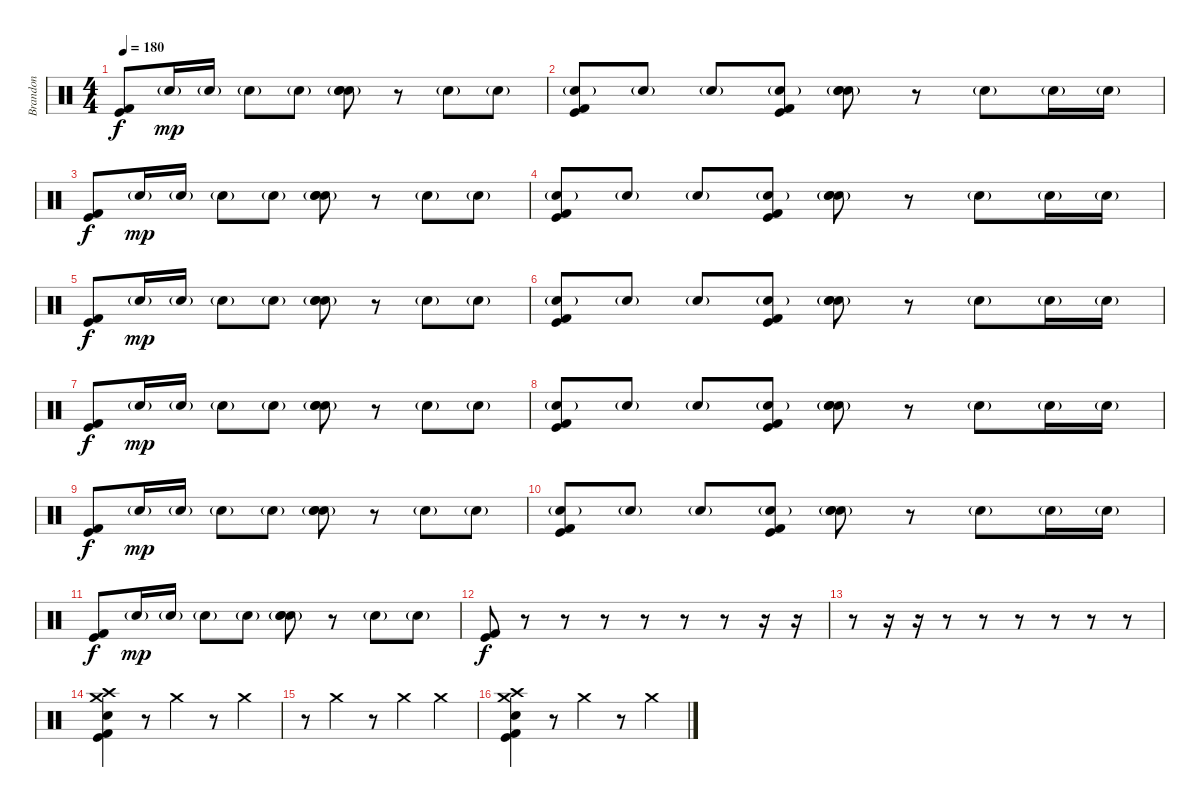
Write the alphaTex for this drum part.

\track ("Brandon" "Brandon") {instrument percussion}
\staff {score}
\articulation defaults
\ts (4 4)
\tempo 180
\clef neutral
\ks c
("Kick (hit)" "Kick (hit) 2").8{dy f} "Snare (hit) 2"{g}.16{dy mp} "Snare (hit) 2"{g}.16 "Snare (hit) 2"{g}.8 "Snare (hit) 2"{g}.8 ("Electric Snare (hit)" "Snare (hit) 2" "Snare (hit) 2"{g}).8 r.8 "Snare (hit) 2"{g}.8 "Snare (hit) 2"{g}.8 |
("Snare (hit) 2"{g} "Kick (hit)" "Kick (hit) 2").8 "Snare (hit) 2"{g}.8 "Snare (hit) 2"{g}.8 ("Snare (hit) 2"{g} "Kick (hit)" "Kick (hit) 2").8 ("Electric Snare (hit)" "Snare (hit) 2" "Snare (hit) 2"{g}).8 r.8 "Snare (hit) 2"{g}.8 "Snare (hit) 2"{g}.16 "Snare (hit) 2"{g}.16 |
("Kick (hit)" "Kick (hit) 2").8{dy f} "Snare (hit) 2"{g}.16{dy mp} "Snare (hit) 2"{g}.16 "Snare (hit) 2"{g}.8 "Snare (hit) 2"{g}.8 ("Electric Snare (hit)" "Snare (hit) 2" "Snare (hit) 2"{g}).8 r.8 "Snare (hit) 2"{g}.8 "Snare (hit) 2"{g}.8 |
("Snare (hit) 2"{g} "Kick (hit)" "Kick (hit) 2").8 "Snare (hit) 2"{g}.8 "Snare (hit) 2"{g}.8 ("Snare (hit) 2"{g} "Kick (hit)" "Kick (hit) 2").8 ("Electric Snare (hit)" "Snare (hit) 2" "Snare (hit) 2"{g}).8 r.8 "Snare (hit) 2"{g}.8 "Snare (hit) 2"{g}.16 "Snare (hit) 2"{g}.16 |
("Kick (hit)" "Kick (hit) 2").8{dy f} "Snare (hit) 2"{g}.16{dy mp} "Snare (hit) 2"{g}.16 "Snare (hit) 2"{g}.8 "Snare (hit) 2"{g}.8 ("Electric Snare (hit)" "Snare (hit) 2" "Snare (hit) 2"{g}).8 r.8 "Snare (hit) 2"{g}.8 "Snare (hit) 2"{g}.8 |
("Snare (hit) 2"{g} "Kick (hit)" "Kick (hit) 2").8 "Snare (hit) 2"{g}.8 "Snare (hit) 2"{g}.8 ("Snare (hit) 2"{g} "Kick (hit)" "Kick (hit) 2").8 ("Electric Snare (hit)" "Snare (hit) 2" "Snare (hit) 2"{g}).8 r.8 "Snare (hit) 2"{g}.8 "Snare (hit) 2"{g}.16 "Snare (hit) 2"{g}.16 |
("Kick (hit)" "Kick (hit) 2").8{dy f} "Snare (hit) 2"{g}.16{dy mp} "Snare (hit) 2"{g}.16 "Snare (hit) 2"{g}.8 "Snare (hit) 2"{g}.8 ("Electric Snare (hit)" "Snare (hit) 2" "Snare (hit) 2"{g}).8 r.8 "Snare (hit) 2"{g}.8 "Snare (hit) 2"{g}.8 |
("Snare (hit) 2"{g} "Kick (hit)" "Kick (hit) 2").8 "Snare (hit) 2"{g}.8 "Snare (hit) 2"{g}.8 ("Snare (hit) 2"{g} "Kick (hit)" "Kick (hit) 2").8 ("Electric Snare (hit)" "Snare (hit) 2" "Snare (hit) 2"{g}).8 r.8 "Snare (hit) 2"{g}.8 "Snare (hit) 2"{g}.16 "Snare (hit) 2"{g}.16 |
("Kick (hit)" "Kick (hit) 2").8{dy f} "Snare (hit) 2"{g}.16{dy mp} "Snare (hit) 2"{g}.16 "Snare (hit) 2"{g}.8 "Snare (hit) 2"{g}.8 ("Electric Snare (hit)" "Snare (hit) 2" "Snare (hit) 2"{g}).8 r.8 "Snare (hit) 2"{g}.8 "Snare (hit) 2"{g}.8 |
("Snare (hit) 2"{g} "Kick (hit)" "Kick (hit) 2").8 "Snare (hit) 2"{g}.8 "Snare (hit) 2"{g}.8 ("Snare (hit) 2"{g} "Kick (hit)" "Kick (hit) 2").8 ("Electric Snare (hit)" "Snare (hit) 2" "Snare (hit) 2"{g}).8 r.8 "Snare (hit) 2"{g}.8 "Snare (hit) 2"{g}.16 "Snare (hit) 2"{g}.16 |
("Kick (hit)" "Kick (hit) 2").8{dy f} "Snare (hit) 2"{g}.16{dy mp} "Snare (hit) 2"{g}.16 "Snare (hit) 2"{g}.8 "Snare (hit) 2"{g}.8 ("Electric Snare (hit)" "Snare (hit) 2" "Snare (hit) 2"{g}).8 r.8 "Snare (hit) 2"{g}.8 "Snare (hit) 2"{g}.8 |
("Kick (hit) 2" "Kick (hit)").8{dy f} r.8 r.8 r.8 r.8 r.8 r.8 r.16 r.16 |
r.8{volume 16} r.16 r.16 r.8 r.8 r.8 r.8 r.8 r.8 |
("Crash high (hit)" "Crash medium (hit)" "Snare (hit) 2" "Kick (hit)" "Kick (hit) 2").4 r.8 "Crash medium (hit)".4 r.8 "Crash medium (hit)".4 |
r.8 "Crash medium (hit)".4 r.8 "Crash medium (hit)".4 "Crash medium (hit)".4 |
("Crash high (hit)" "Crash medium (hit)" "Snare (hit) 2" "Kick (hit)" "Kick (hit) 2").4 r.8 "Crash medium (hit)".4 r.8 "Crash medium (hit)".4
